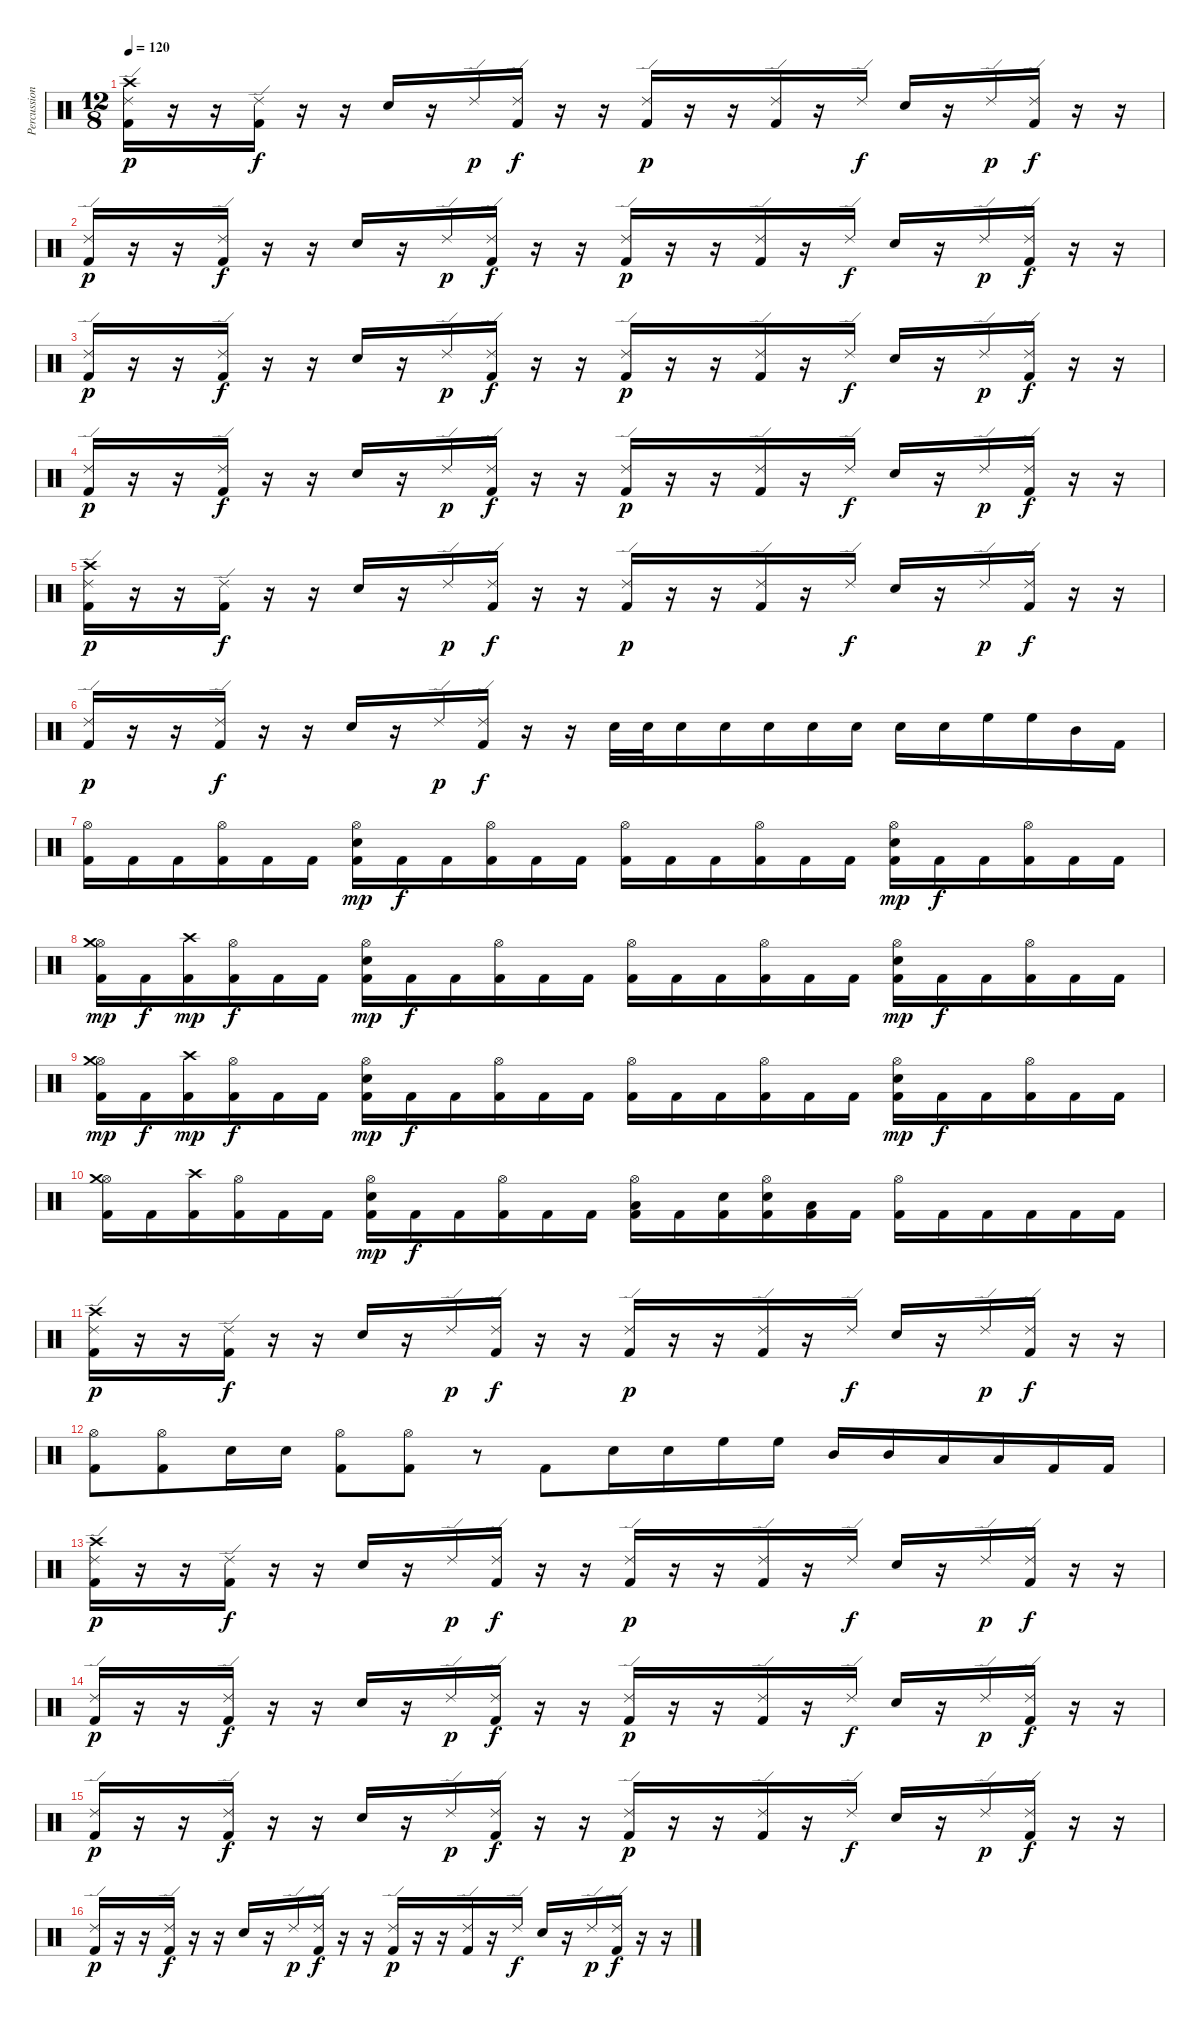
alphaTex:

\track ("Percussions" "Percussion") {instrument percussion}
\staff {score}
\articulation defaults
\ts (12 8)
\tempo 120
\clef neutral
\ks c
("Ride (edge) 2" "Kick (hit) 2" "Crash high (hit)").16{dy p} r.16 r.16 ("Ride (edge) 2" "Kick (hit) 2").16{dy f} r.16 r.16 "Snare (hit) 2".16 r.16 "Ride (edge) 2".16{dy p} ("Ride (edge) 2" "Kick (hit) 2").16{dy f} r.16 r.16 ("Ride (edge) 2" "Kick (hit) 2").16{dy p} r.16 r.16 ("Ride (edge) 2" "Kick (hit) 2").16 r.16 "Ride (edge) 2".16{dy f} "Snare (hit) 2".16 r.16 "Ride (edge) 2".16{dy p} ("Ride (edge) 2" "Kick (hit) 2").16{dy f} r.16 r.16 |
("Ride (edge) 2" "Kick (hit) 2").16{dy p} r.16 r.16 ("Ride (edge) 2" "Kick (hit) 2").16{dy f} r.16 r.16 "Snare (hit) 2".16 r.16 "Ride (edge) 2".16{dy p} ("Ride (edge) 2" "Kick (hit) 2").16{dy f} r.16 r.16 ("Ride (edge) 2" "Kick (hit) 2").16{dy p} r.16 r.16 ("Ride (edge) 2" "Kick (hit) 2").16 r.16 "Ride (edge) 2".16{dy f} "Snare (hit) 2".16 r.16 "Ride (edge) 2".16{dy p} ("Ride (edge) 2" "Kick (hit) 2").16{dy f} r.16 r.16 |
("Ride (edge) 2" "Kick (hit) 2").16{dy p} r.16 r.16 ("Ride (edge) 2" "Kick (hit) 2").16{dy f} r.16 r.16 "Snare (hit) 2".16 r.16 "Ride (edge) 2".16{dy p} ("Ride (edge) 2" "Kick (hit) 2").16{dy f} r.16 r.16 ("Ride (edge) 2" "Kick (hit) 2").16{dy p} r.16 r.16 ("Ride (edge) 2" "Kick (hit) 2").16 r.16 "Ride (edge) 2".16{dy f} "Snare (hit) 2".16 r.16 "Ride (edge) 2".16{dy p} ("Ride (edge) 2" "Kick (hit) 2").16{dy f} r.16 r.16 |
("Ride (edge) 2" "Kick (hit) 2").16{dy p} r.16 r.16 ("Ride (edge) 2" "Kick (hit) 2").16{dy f} r.16 r.16 "Snare (hit) 2".16 r.16 "Ride (edge) 2".16{dy p} ("Ride (edge) 2" "Kick (hit) 2").16{dy f} r.16 r.16 ("Ride (edge) 2" "Kick (hit) 2").16{dy p} r.16 r.16 ("Ride (edge) 2" "Kick (hit) 2").16 r.16 "Ride (edge) 2".16{dy f} "Snare (hit) 2".16 r.16 "Ride (edge) 2".16{dy p} ("Ride (edge) 2" "Kick (hit) 2").16{dy f} r.16 r.16 |
("Ride (edge) 2" "Kick (hit) 2" "Crash high (hit)").16{dy p} r.16 r.16 ("Ride (edge) 2" "Kick (hit) 2").16{dy f} r.16 r.16 "Snare (hit) 2".16 r.16 "Ride (edge) 2".16{dy p} ("Ride (edge) 2" "Kick (hit) 2").16{dy f} r.16 r.16 ("Ride (edge) 2" "Kick (hit) 2").16{dy p} r.16 r.16 ("Ride (edge) 2" "Kick (hit) 2").16 r.16 "Ride (edge) 2".16{dy f} "Snare (hit) 2".16 r.16 "Ride (edge) 2".16{dy p} ("Ride (edge) 2" "Kick (hit) 2").16{dy f} r.16 r.16 |
("Ride (edge) 2" "Kick (hit) 2").16{dy p} r.16 r.16 ("Ride (edge) 2" "Kick (hit) 2").16{dy f} r.16 r.16 "Snare (hit) 2".16 r.16 "Ride (edge) 2".16{dy p} ("Ride (edge) 2" "Kick (hit) 2").16{dy f} r.16 r.16 "Snare (hit) 2".32 "Snare (hit) 2".32 "Snare (hit) 2".16 "Snare (hit) 2".16 "Snare (hit) 2".16 "Snare (hit) 2".16 "Snare (hit) 2".16 "Snare (hit) 2".16 "Snare (hit) 2".16 "High Floor Tom (hit)".16 "High Floor Tom (hit)".16 "Mid Tom (hit)".16 "Kick (hit) 2".16 |
("Hi-Hat (open)" "Kick (hit) 2").16 "Kick (hit) 2".16 "Kick (hit) 2".16 ("Hi-Hat (open)" "Kick (hit) 2").16 "Kick (hit) 2".16 "Kick (hit) 2".16 ("Hi-Hat (open)" "Kick (hit) 2" "Snare (hit) 2").16{dy mp} "Kick (hit) 2".16{dy f} "Kick (hit) 2".16 ("Hi-Hat (open)" "Kick (hit) 2").16 "Kick (hit) 2".16 "Kick (hit) 2".16 ("Hi-Hat (open)" "Kick (hit) 2").16 "Kick (hit) 2".16 "Kick (hit) 2".16 ("Hi-Hat (open)" "Kick (hit) 2").16 "Kick (hit) 2".16 "Kick (hit) 2".16 ("Hi-Hat (open)" "Kick (hit) 2" "Snare (hit) 2").16{dy mp} "Kick (hit) 2".16{dy f} "Kick (hit) 2".16 ("Hi-Hat (open)" "Kick (hit) 2").16 "Kick (hit) 2".16 "Kick (hit) 2".16 |
("Hi-Hat (open)" "Kick (hit) 2" "Crash medium (hit)").16{dy mp} "Kick (hit) 2".16{dy f} ("Kick (hit) 2" "Crash high (hit)").16{dy mp} ("Hi-Hat (open)" "Kick (hit) 2").16{dy f} "Kick (hit) 2".16 "Kick (hit) 2".16 ("Hi-Hat (open)" "Kick (hit) 2" "Snare (hit) 2").16{dy mp} "Kick (hit) 2".16{dy f} "Kick (hit) 2".16 ("Hi-Hat (open)" "Kick (hit) 2").16 "Kick (hit) 2".16 "Kick (hit) 2".16 ("Hi-Hat (open)" "Kick (hit) 2").16 "Kick (hit) 2".16 "Kick (hit) 2".16 ("Hi-Hat (open)" "Kick (hit) 2").16 "Kick (hit) 2".16 "Kick (hit) 2".16 ("Hi-Hat (open)" "Kick (hit) 2" "Snare (hit) 2").16{dy mp} "Kick (hit) 2".16{dy f} "Kick (hit) 2".16 ("Hi-Hat (open)" "Kick (hit) 2").16 "Kick (hit) 2".16 "Kick (hit) 2".16 |
("Hi-Hat (open)" "Kick (hit) 2" "Crash medium (hit)").16{dy mp} "Kick (hit) 2".16{dy f} ("Kick (hit) 2" "Crash high (hit)").16{dy mp} ("Hi-Hat (open)" "Kick (hit) 2").16{dy f} "Kick (hit) 2".16 "Kick (hit) 2".16 ("Hi-Hat (open)" "Kick (hit) 2" "Snare (hit) 2").16{dy mp} "Kick (hit) 2".16{dy f} "Kick (hit) 2".16 ("Hi-Hat (open)" "Kick (hit) 2").16 "Kick (hit) 2".16 "Kick (hit) 2".16 ("Hi-Hat (open)" "Kick (hit) 2").16 "Kick (hit) 2".16 "Kick (hit) 2".16 ("Hi-Hat (open)" "Kick (hit) 2").16 "Kick (hit) 2".16 "Kick (hit) 2".16 ("Hi-Hat (open)" "Kick (hit) 2" "Snare (hit) 2").16{dy mp} "Kick (hit) 2".16{dy f} "Kick (hit) 2".16 ("Hi-Hat (open)" "Kick (hit) 2").16 "Kick (hit) 2".16 "Kick (hit) 2".16 |
("Hi-Hat (open)" "Kick (hit) 2" "Crash medium (hit)").16 "Kick (hit) 2".16 ("Kick (hit) 2" "Crash high (hit)").16 ("Hi-Hat (open)" "Kick (hit) 2").16 "Kick (hit) 2".16 "Kick (hit) 2".16 ("Hi-Hat (open)" "Kick (hit) 2" "Snare (hit) 2").16{dy mp} "Kick (hit) 2".16{dy f} "Kick (hit) 2".16 ("Hi-Hat (open)" "Kick (hit) 2").16 "Kick (hit) 2".16 "Kick (hit) 2".16 ("Hi-Hat (open)" "Kick (hit) 2" "Low Floor Tom (hit)").16 "Kick (hit) 2".16 ("Kick (hit) 2" "Snare (hit) 2").16 ("Hi-Hat (open)" "Kick (hit) 2" "Snare (hit) 2").16 ("Kick (hit) 2" "Low Floor Tom (hit)").16 "Kick (hit) 2".16 ("Hi-Hat (open)" "Kick (hit) 2").16 "Kick (hit) 2".16 "Kick (hit) 2".16 "Kick (hit) 2".16 "Kick (hit) 2".16 "Kick (hit) 2".16 |
("Ride (edge) 2" "Kick (hit) 2" "Crash high (hit)").16{dy p} r.16 r.16 ("Ride (edge) 2" "Kick (hit) 2").16{dy f} r.16 r.16 "Snare (hit) 2".16 r.16 "Ride (edge) 2".16{dy p} ("Ride (edge) 2" "Kick (hit) 2").16{dy f} r.16 r.16 ("Ride (edge) 2" "Kick (hit) 2").16{dy p} r.16 r.16 ("Ride (edge) 2" "Kick (hit) 2").16 r.16 "Ride (edge) 2".16{dy f} "Snare (hit) 2".16 r.16 "Ride (edge) 2".16{dy p} ("Ride (edge) 2" "Kick (hit) 2").16{dy f} r.16 r.16 |
("Kick (hit) 2" "Hi-Hat (open)").8 ("Kick (hit) 2" "Hi-Hat (open)").8 "Snare (hit) 2".16 "Snare (hit) 2".16 ("Kick (hit) 2" "Hi-Hat (open)").8 ("Kick (hit) 2" "Hi-Hat (open)").8 r.8 "Kick (hit) 2".8 "Snare (hit) 2".16 "Snare (hit) 2".16 "High Floor Tom (hit)".16 "High Floor Tom (hit)".16 "Mid Tom (hit)".16 "Mid Tom (hit)".16 "Low Tom (hit)".16 "Low Tom (hit)".16 "Kick (hit) 2".16 "Kick (hit) 2".16 |
("Ride (edge) 2" "Kick (hit) 2" "Crash high (hit)").16{dy p} r.16 r.16 ("Ride (edge) 2" "Kick (hit) 2").16{dy f} r.16 r.16 "Snare (hit) 2".16 r.16 "Ride (edge) 2".16{dy p} ("Ride (edge) 2" "Kick (hit) 2").16{dy f} r.16 r.16 ("Ride (edge) 2" "Kick (hit) 2").16{dy p} r.16 r.16 ("Ride (edge) 2" "Kick (hit) 2").16 r.16 "Ride (edge) 2".16{dy f} "Snare (hit) 2".16 r.16 "Ride (edge) 2".16{dy p} ("Ride (edge) 2" "Kick (hit) 2").16{dy f} r.16 r.16 |
("Ride (edge) 2" "Kick (hit) 2").16{dy p} r.16 r.16 ("Ride (edge) 2" "Kick (hit) 2").16{dy f} r.16 r.16 "Snare (hit) 2".16 r.16 "Ride (edge) 2".16{dy p} ("Ride (edge) 2" "Kick (hit) 2").16{dy f} r.16 r.16 ("Ride (edge) 2" "Kick (hit) 2").16{dy p} r.16 r.16 ("Ride (edge) 2" "Kick (hit) 2").16 r.16 "Ride (edge) 2".16{dy f} "Snare (hit) 2".16 r.16 "Ride (edge) 2".16{dy p} ("Ride (edge) 2" "Kick (hit) 2").16{dy f} r.16 r.16 |
("Ride (edge) 2" "Kick (hit) 2").16{dy p} r.16 r.16 ("Ride (edge) 2" "Kick (hit) 2").16{dy f} r.16 r.16 "Snare (hit) 2".16 r.16 "Ride (edge) 2".16{dy p} ("Ride (edge) 2" "Kick (hit) 2").16{dy f} r.16 r.16 ("Ride (edge) 2" "Kick (hit) 2").16{dy p} r.16 r.16 ("Ride (edge) 2" "Kick (hit) 2").16 r.16 "Ride (edge) 2".16{dy f} "Snare (hit) 2".16 r.16 "Ride (edge) 2".16{dy p} ("Ride (edge) 2" "Kick (hit) 2").16{dy f} r.16 r.16 |
("Ride (edge) 2" "Kick (hit) 2").16{dy p} r.16 r.16 ("Ride (edge) 2" "Kick (hit) 2").16{dy f} r.16 r.16 "Snare (hit) 2".16 r.16 "Ride (edge) 2".16{dy p} ("Ride (edge) 2" "Kick (hit) 2").16{dy f} r.16 r.16 ("Ride (edge) 2" "Kick (hit) 2").16{dy p} r.16 r.16 ("Ride (edge) 2" "Kick (hit) 2").16 r.16 "Ride (edge) 2".16{dy f} "Snare (hit) 2".16 r.16 "Ride (edge) 2".16{dy p} ("Ride (edge) 2" "Kick (hit) 2").16{dy f} r.16 r.16
